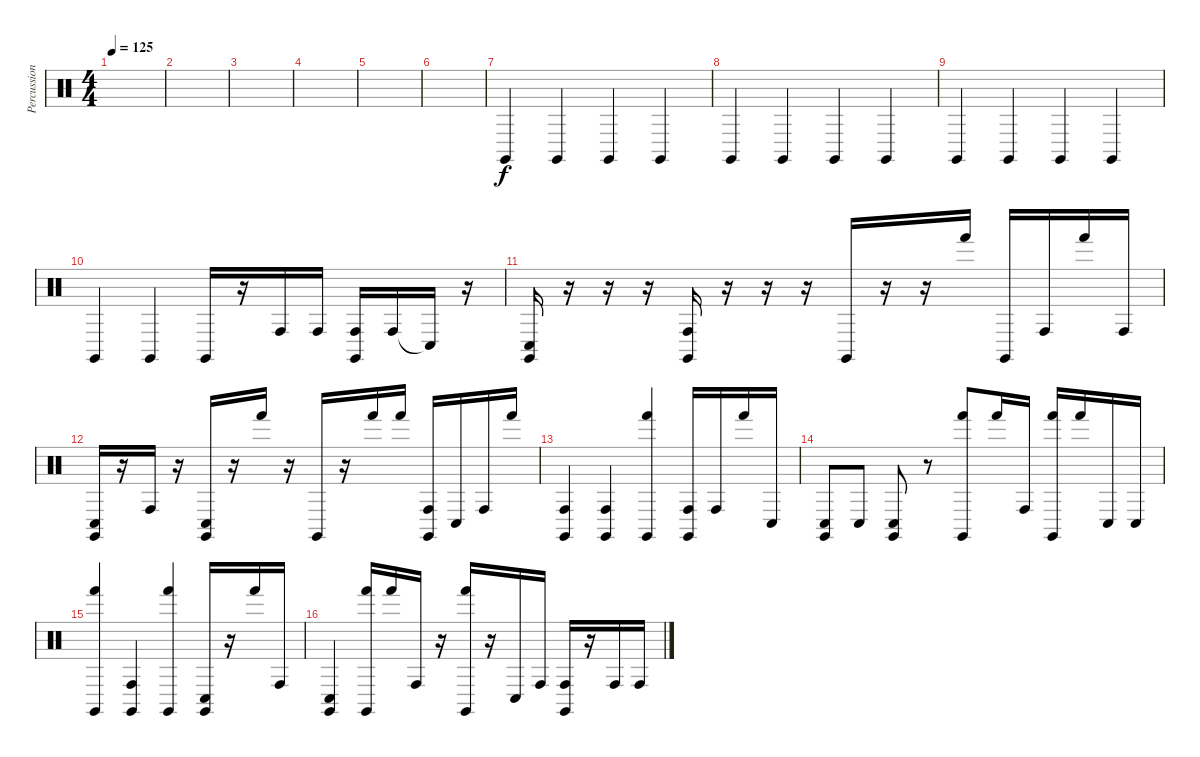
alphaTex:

\track ("Percussion" "Percussion") {instrument percussion}
\staff {score}
\articulation defaults
\ts (4 4)
\tempo 125
\clef neutral
\ks c
|
|
|
|
|
|
"Claves (hit)".4 "Claves (hit)".4 "Claves (hit)".4 "Claves (hit)".4 |
"Claves (hit)".4 "Claves (hit)".4 "Claves (hit)".4 "Claves (hit)".4 |
"Claves (hit)".4 "Claves (hit)".4 "Claves (hit)".4 "Claves (hit)".4 |
"Claves (hit)".4 "Claves (hit)".4 "Claves (hit)".16 r.16 "Conga high (hit)".16 "Conga high (hit)".16 ("Claves (hit)" "Conga high (hit)").16 "Conga high (hit)".16 "Conga low (hit)"{t}.16 r.16 |
("Claves (hit)" "Conga low (hit)").16 r.16 r.16 r.16 ("Claves (hit)" "Conga high (hit)").16 r.16 r.16 r.16 "Claves (hit)".16 r.16 r.16 "Hand (hit)".16 "Claves (hit)".16 "Conga high (hit)".16 "Hand (hit)".16 "Conga high (hit)".16 |
("Claves (hit)" "Conga low (hit)").16 r.16 "Conga high (hit)".16 r.16 ("Claves (hit)" "Conga low (hit)").16 r.16 "Hand (hit)".16 r.16 "Claves (hit)".16 r.16 "Hand (hit)".16 "Hand (hit)".16 ("Claves (hit)" "Conga high (hit)").16 "Conga low (hit)".16 "Conga high (hit)".16 "Hand (hit)".16 |
("Claves (hit)" "Conga high (hit)").4 ("Claves (hit)" "Conga high (hit)").4 ("Claves (hit)" "Hand (hit)").4 ("Claves (hit)" "Conga high (hit)").16 "Conga high (hit)".16 "Hand (hit)".16 "Conga low (hit)".16 |
("Claves (hit)" "Conga low (hit)").8 "Conga low (hit)".8 ("Claves (hit)" "Conga low (hit)").8 r.8 ("Claves (hit)" "Hand (hit)").8 "Hand (hit)".16 "Conga high (hit)".16 ("Claves (hit)" "Hand (hit)").16 "Hand (hit)".16 "Conga low (hit)".16 "Conga low (hit)".16 |
("Claves (hit)" "Hand (hit)").4 ("Claves (hit)" "Conga high (hit)").4 ("Claves (hit)" "Hand (hit)").4 ("Claves (hit)" "Conga low (hit)").16 r.16 "Hand (hit)".16 "Conga high (hit)".16 |
("Claves (hit)" "Conga low (hit)").4 ("Claves (hit)" "Hand (hit)").16 "Hand (hit)".16 "Conga high (hit)".16 r.16 ("Claves (hit)" "Hand (hit)").16 r.16 "Conga low (hit)".16 "Conga high (hit)".16 ("Claves (hit)" "Conga high (hit)").16 r.16 "Conga high (hit)".16 "Conga high (hit)".16
